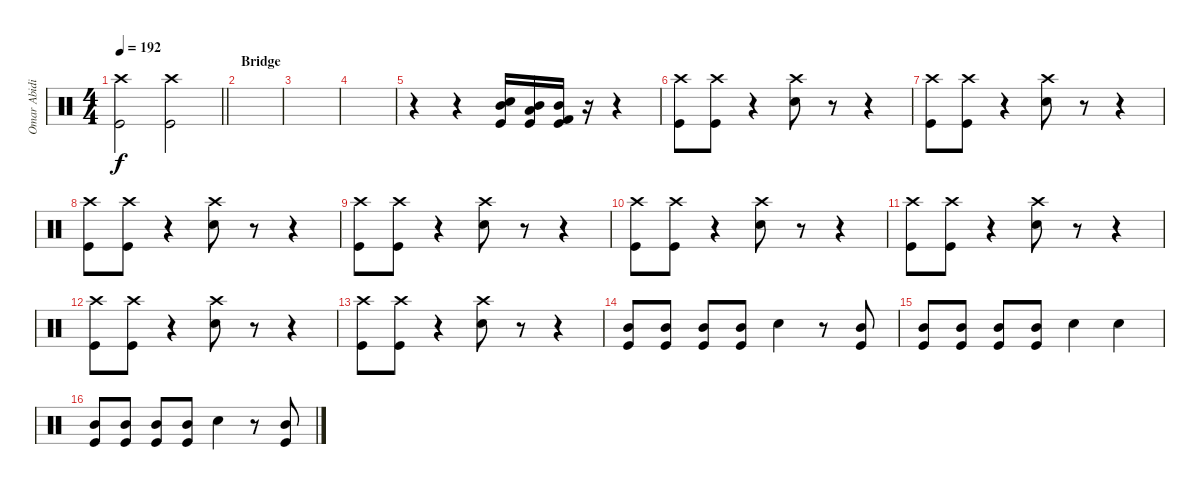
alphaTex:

\track ("Omar Abidi" "Omar Abidi") {instrument percussion}
\staff {score}
\articulation defaults
\ts (4 4)
\tempo 192
\clef neutral
\barLineRight lightlight
\ks c
("Crash high (hit)" "Kick (hit)").2{dy f} ("Crash high (hit)" "Kick (hit)").2 |
\section ("" "Bridge")
|
|
|
r.4 r.4 ("Snare (hit) 2" "Mid Tom (hit)" "Kick (hit)").16 ("Low Floor Tom (hit)" "Mid Tom (hit)" "Kick (hit)").16 ("Mid Tom (hit)" "Kick (hit) 2" "Kick (hit)").16 r.16 r.4 |
("Crash high (hit)" "Kick (hit)").8 ("Crash high (hit)" "Kick (hit)").8 r.4 ("Crash high (hit)" "Snare (hit) 2").8 r.8 r.4 |
("Crash high (hit)" "Kick (hit)").8 ("Crash high (hit)" "Kick (hit)").8 r.4 ("Crash high (hit)" "Snare (hit) 2").8 r.8 r.4 |
("Crash high (hit)" "Kick (hit)").8 ("Crash high (hit)" "Kick (hit)").8 r.4 ("Crash high (hit)" "Snare (hit) 2").8 r.8 r.4 |
("Crash high (hit)" "Kick (hit)").8 ("Crash high (hit)" "Kick (hit)").8 r.4 ("Crash high (hit)" "Snare (hit) 2").8 r.8 r.4 |
("Crash high (hit)" "Kick (hit)").8 ("Crash high (hit)" "Kick (hit)").8 r.4 ("Crash high (hit)" "Snare (hit) 2").8 r.8 r.4 |
("Crash high (hit)" "Kick (hit)").8 ("Crash high (hit)" "Kick (hit)").8 r.4 ("Crash high (hit)" "Snare (hit) 2").8 r.8 r.4 |
("Crash high (hit)" "Kick (hit)").8 ("Crash high (hit)" "Kick (hit)").8 r.4 ("Crash high (hit)" "Snare (hit) 2").8 r.8 r.4 |
("Crash high (hit)" "Kick (hit)").8 ("Crash high (hit)" "Kick (hit)").8 r.4 ("Crash high (hit)" "Snare (hit) 2").8 r.8 r.4 |
("Mid Tom (hit)" "Kick (hit)").8 ("Mid Tom (hit)" "Kick (hit)").8 ("Mid Tom (hit)" "Kick (hit)").8 ("Mid Tom (hit)" "Kick (hit)").8 "Snare (hit) 2".4 r.8 ("Mid Tom (hit)" "Kick (hit)").8 |
("Mid Tom (hit)" "Kick (hit)").8 ("Mid Tom (hit)" "Kick (hit)").8 ("Mid Tom (hit)" "Kick (hit)").8 ("Mid Tom (hit)" "Kick (hit)").8 "Snare (hit) 2".4 "Snare (hit) 2".4 |
("Mid Tom (hit)" "Kick (hit)").8 ("Mid Tom (hit)" "Kick (hit)").8 ("Mid Tom (hit)" "Kick (hit)").8 ("Mid Tom (hit)" "Kick (hit)").8 "Snare (hit) 2".4 r.8 ("Mid Tom (hit)" "Kick (hit)").8
